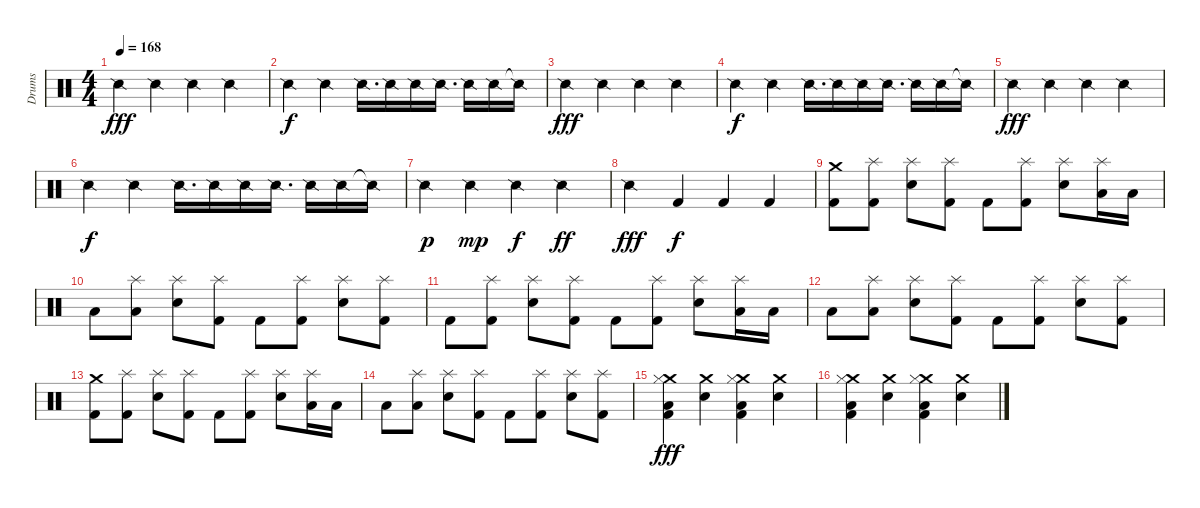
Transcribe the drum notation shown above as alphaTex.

\track ("Drums" "Drums") {instrument percussion}
\staff {score}
\articulation defaults
\ts (4 4)
\tempo 168
\clef neutral
\ks c "Snare (side stick) 2".4{dy fff} "Snare (side stick) 2".4 "Snare (side stick) 2".4 "Snare (side stick) 2".4
|
"Snare (side stick) 2".4{dy f} "Snare (side stick) 2".4 "Snare (side stick) 2".16{d} "Snare (side stick) 2".16 "Snare (side stick) 2".16 "Snare (side stick) 2".16{d} "Snare (side stick) 2".16 "Snare (side stick) 2".16 "Snare (side stick) 2"{t}.16 |
"Snare (side stick) 2".4{dy fff} "Snare (side stick) 2".4 "Snare (side stick) 2".4 "Snare (side stick) 2".4 |
"Snare (side stick) 2".4{dy f} "Snare (side stick) 2".4 "Snare (side stick) 2".16{d} "Snare (side stick) 2".16 "Snare (side stick) 2".16 "Snare (side stick) 2".16{d} "Snare (side stick) 2".16 "Snare (side stick) 2".16 "Snare (side stick) 2"{t}.16 |
"Snare (side stick) 2".4{dy fff} "Snare (side stick) 2".4 "Snare (side stick) 2".4 "Snare (side stick) 2".4 |
"Snare (side stick) 2".4{dy f} "Snare (side stick) 2".4 "Snare (side stick) 2".16{d} "Snare (side stick) 2".16 "Snare (side stick) 2".16 "Snare (side stick) 2".16{d} "Snare (side stick) 2".16 "Snare (side stick) 2".16 "Snare (side stick) 2"{t}.16 |
"Snare (side stick) 2".4{dy p} "Snare (side stick) 2".4{dy mp} "Snare (side stick) 2".4{dy f} "Snare (side stick) 2".4{dy ff} |
"Snare (side stick) 2".4{dy fff} "Kick (hit) 2".4{dy f} "Kick (hit) 2".4 "Kick (hit) 2".4 |
("Crash medium (hit)" "Kick (hit) 2").8 ("Splash (hit)" "Kick (hit) 2").8 ("Splash (hit)" "Electric Snare (hit)").8 ("Splash (hit)" "Kick (hit) 2").8 "Kick (hit) 2".8 ("Splash (hit)" "Kick (hit) 2").8 ("Splash (hit)" "Electric Snare (hit)").8 ("Splash (hit)" "Low Floor Tom (hit)").16 "Low Floor Tom (hit)".16 |
"Low Floor Tom (hit)".8 ("Splash (hit)" "Low Floor Tom (hit)").8 ("Splash (hit)" "Electric Snare (hit)").8 ("Splash (hit)" "Kick (hit) 2").8 "Kick (hit) 2".8 ("Splash (hit)" "Kick (hit) 2").8 ("Splash (hit)" "Electric Snare (hit)").8 ("Splash (hit)" "Kick (hit) 2").8 |
"Kick (hit) 2".8 ("Splash (hit)" "Kick (hit) 2").8 ("Splash (hit)" "Electric Snare (hit)").8 ("Splash (hit)" "Kick (hit) 2").8 "Kick (hit) 2".8 ("Splash (hit)" "Kick (hit) 2").8 ("Splash (hit)" "Electric Snare (hit)").8 ("Splash (hit)" "Low Floor Tom (hit)").16 "Low Floor Tom (hit)".16 |
"Low Floor Tom (hit)".8 ("Splash (hit)" "Low Floor Tom (hit)").8 ("Splash (hit)" "Electric Snare (hit)").8 ("Splash (hit)" "Kick (hit) 2").8 "Kick (hit) 2".8 ("Splash (hit)" "Kick (hit) 2").8 ("Splash (hit)" "Electric Snare (hit)").8 ("Splash (hit)" "Kick (hit) 2").8 |
("Crash medium (hit)" "Kick (hit) 2").8 ("Splash (hit)" "Kick (hit) 2").8 ("Splash (hit)" "Electric Snare (hit)").8 ("Splash (hit)" "Kick (hit) 2").8 "Kick (hit) 2".8 ("Splash (hit)" "Kick (hit) 2").8 ("Splash (hit)" "Electric Snare (hit)").8 ("Splash (hit)" "Low Floor Tom (hit)").16 "Low Floor Tom (hit)".16 |
"Low Floor Tom (hit)".8 ("Splash (hit)" "Low Floor Tom (hit)").8 ("Splash (hit)" "Electric Snare (hit)").8 ("Splash (hit)" "Kick (hit) 2").8 "Kick (hit) 2".8 ("Splash (hit)" "Kick (hit) 2").8 ("Splash (hit)" "Electric Snare (hit)").8 ("Splash (hit)" "Kick (hit) 2").8 |
("Crash medium (hit)" "Hi-Hat (closed)" "Low Floor Tom (hit)" "Kick (hit) 2").4{dy fff} ("Crash medium (hit)" "Electric Snare (hit)").4 ("Crash medium (hit)" "Hi-Hat (closed)" "Low Floor Tom (hit)" "Kick (hit) 2").4 ("Crash medium (hit)" "Electric Snare (hit)").4 |
("Crash medium (hit)" "Hi-Hat (closed)" "Low Floor Tom (hit)" "Kick (hit) 2").4 ("Crash medium (hit)" "Electric Snare (hit)").4 ("Crash medium (hit)" "Hi-Hat (closed)" "Low Floor Tom (hit)" "Kick (hit) 2").4 ("Crash medium (hit)" "Electric Snare (hit)").4
